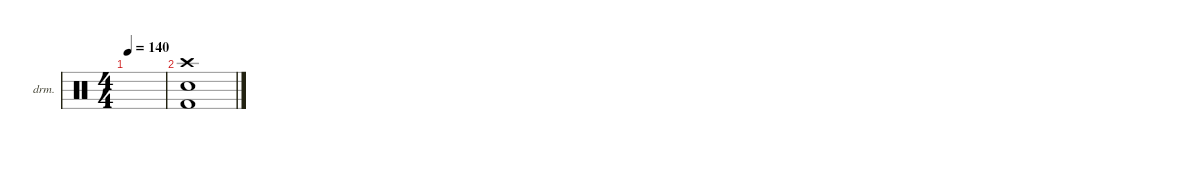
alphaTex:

\defaultSystemsLayout 4
\hideDynamics
\bracketExtendMode nobrackets
\firstSystemTrackNameOrientation horizontal
\otherSystemsTrackNameOrientation horizontal
\track ("Drumkit" "drm.") {instrument percussion}
\staff {score}
\articulation defaults
\ts (4 4)
\tempo 140
\clef neutral
\ks c
|
("Crash high (hit)" "Kick (hit) 2" "Snare (hit) 2").1
